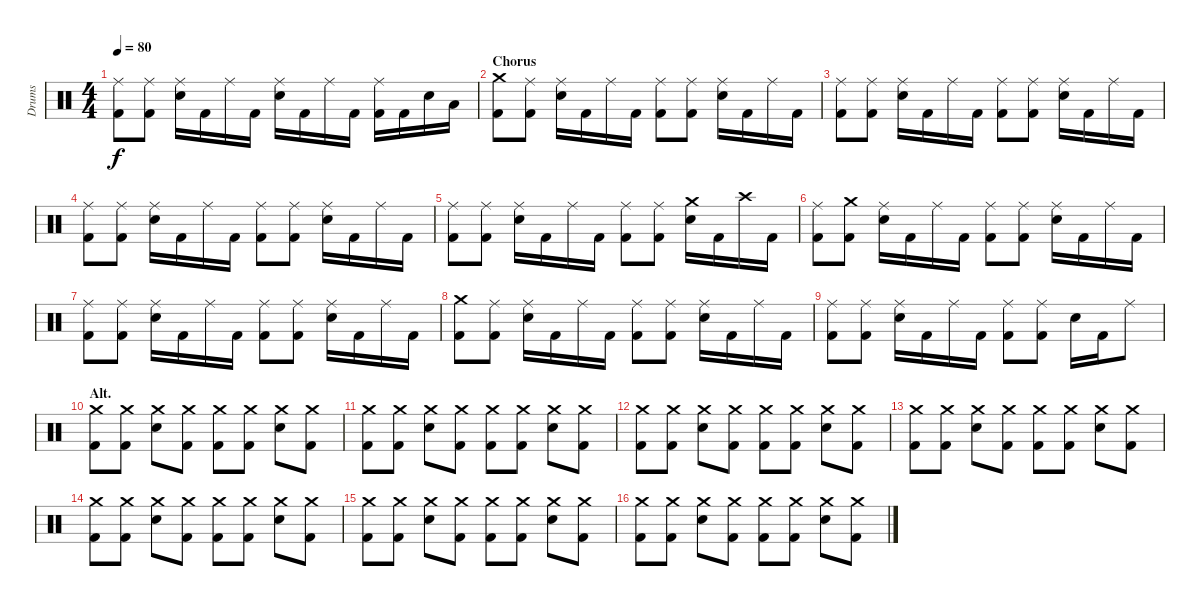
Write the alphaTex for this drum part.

\track ("Drums" "Drums") {instrument percussion}
\staff {score}
\articulation defaults
\ts (4 4)
\tempo 80
\clef neutral
\ks c
("Ride (middle)" "Kick (hit) 2").8{dy f} ("Ride (middle)" "Kick (hit) 2").8 ("Ride (middle)" "Electric Snare (hit)").16 "Kick (hit) 2".16 "Ride (middle)".16 "Kick (hit) 2".16 ("Ride (middle)" "Electric Snare (hit)").16 "Kick (hit) 2".16 "Ride (middle)".16 "Kick (hit) 2".16 ("Ride (middle)" "Kick (hit) 2").16 "Kick (hit) 2".16 "Electric Snare (hit)".16 "Low Floor Tom (hit)".16 |
\section ("" "Chorus")
("Crash medium (hit)" "Kick (hit) 2").8 ("Ride (middle)" "Kick (hit) 2").8 ("Ride (middle)" "Electric Snare (hit)").16 "Kick (hit) 2".16 "Ride (middle)".16 "Kick (hit) 2".16 ("Ride (middle)" "Kick (hit) 2").8 ("Ride (middle)" "Kick (hit) 2").8 ("Ride (middle)" "Electric Snare (hit)").16 "Kick (hit) 2".16 "Ride (middle)".16 "Kick (hit) 2".16 |
("Ride (middle)" "Kick (hit) 2").8 ("Ride (middle)" "Kick (hit) 2").8 ("Ride (middle)" "Electric Snare (hit)").16 "Kick (hit) 2".16 "Ride (middle)".16 "Kick (hit) 2".16 ("Ride (middle)" "Kick (hit) 2").8 ("Ride (middle)" "Kick (hit) 2").8 ("Ride (middle)" "Electric Snare (hit)").16 "Kick (hit) 2".16 "Ride (middle)".16 "Kick (hit) 2".16 |
("Ride (middle)" "Kick (hit) 2").8 ("Ride (middle)" "Kick (hit) 2").8 ("Ride (middle)" "Electric Snare (hit)").16 "Kick (hit) 2".16 "Ride (middle)".16 "Kick (hit) 2".16 ("Ride (middle)" "Kick (hit) 2").8 ("Ride (middle)" "Kick (hit) 2").8 ("Ride (middle)" "Electric Snare (hit)").16 "Kick (hit) 2".16 "Ride (middle)".16 "Kick (hit) 2".16 |
("Ride (middle)" "Kick (hit) 2").8 ("Ride (middle)" "Kick (hit) 2").8 ("Ride (middle)" "Electric Snare (hit)").16 "Kick (hit) 2".16 "Ride (middle)".16 "Kick (hit) 2".16 ("Ride (middle)" "Kick (hit) 2").8 ("Ride (middle)" "Kick (hit) 2").8 ("Crash medium (hit)" "Electric Snare (hit)").16 "Kick (hit) 2".16 "Crash high (hit)".16 "Kick (hit) 2".16 |
("Ride (middle)" "Kick (hit) 2").8 ("Crash medium (hit)" "Kick (hit) 2").8 ("Ride (middle)" "Electric Snare (hit)").16 "Kick (hit) 2".16 "Ride (middle)".16 "Kick (hit) 2".16 ("Ride (middle)" "Kick (hit) 2").8 ("Ride (middle)" "Kick (hit) 2").8 ("Ride (middle)" "Electric Snare (hit)").16 "Kick (hit) 2".16 "Ride (middle)".16 "Kick (hit) 2".16 |
("Ride (middle)" "Kick (hit) 2").8 ("Ride (middle)" "Kick (hit) 2").8 ("Ride (middle)" "Electric Snare (hit)").16 "Kick (hit) 2".16 "Ride (middle)".16 "Kick (hit) 2".16 ("Ride (middle)" "Kick (hit) 2").8 ("Ride (middle)" "Kick (hit) 2").8 ("Ride (middle)" "Electric Snare (hit)").16 "Kick (hit) 2".16 "Ride (middle)".16 "Kick (hit) 2".16 |
("Crash medium (hit)" "Kick (hit) 2").8 ("Ride (middle)" "Kick (hit) 2").8 ("Ride (middle)" "Electric Snare (hit)").16 "Kick (hit) 2".16 "Ride (middle)".16 "Kick (hit) 2".16 ("Ride (middle)" "Kick (hit) 2").8 ("Ride (middle)" "Kick (hit) 2").8 ("Ride (middle)" "Electric Snare (hit)").16 "Kick (hit) 2".16 "Ride (middle)".16 "Kick (hit) 2".16 |
("Ride (middle)" "Kick (hit) 2").8 ("Ride (middle)" "Kick (hit) 2").8 ("Ride (middle)" "Electric Snare (hit)").16 "Kick (hit) 2".16 "Ride (middle)".16 "Kick (hit) 2".16 ("Ride (middle)" "Kick (hit) 2").8 ("Ride (middle)" "Kick (hit) 2").8 "Electric Snare (hit)".16 "Kick (hit) 2".16 "Ride (middle)".8 |
\section ("" "Alt.")
("Crash medium (hit)" "Kick (hit) 2").8 ("Crash medium (hit)" "Kick (hit) 2").8 ("Crash medium (hit)" "Electric Snare (hit)").8 ("Crash medium (hit)" "Kick (hit) 2").8 ("Crash medium (hit)" "Kick (hit) 2").8 ("Crash medium (hit)" "Kick (hit) 2").8 ("Crash medium (hit)" "Electric Snare (hit)").8 ("Crash medium (hit)" "Kick (hit) 2").8 |
("Crash medium (hit)" "Kick (hit) 2").8 ("Crash medium (hit)" "Kick (hit) 2").8 ("Crash medium (hit)" "Electric Snare (hit)").8 ("Crash medium (hit)" "Kick (hit) 2").8 ("Crash medium (hit)" "Kick (hit) 2").8 ("Crash medium (hit)" "Kick (hit) 2").8 ("Crash medium (hit)" "Electric Snare (hit)").8 ("Crash medium (hit)" "Kick (hit) 2").8 |
("Crash medium (hit)" "Kick (hit) 2").8 ("Crash medium (hit)" "Kick (hit) 2").8 ("Crash medium (hit)" "Electric Snare (hit)").8 ("Crash medium (hit)" "Kick (hit) 2").8 ("Crash medium (hit)" "Kick (hit) 2").8 ("Crash medium (hit)" "Kick (hit) 2").8 ("Crash medium (hit)" "Electric Snare (hit)").8 ("Crash medium (hit)" "Kick (hit) 2").8 |
("Crash medium (hit)" "Kick (hit) 2").8 ("Crash medium (hit)" "Kick (hit) 2").8 ("Crash medium (hit)" "Electric Snare (hit)").8 ("Crash medium (hit)" "Kick (hit) 2").8 ("Crash medium (hit)" "Kick (hit) 2").8 ("Crash medium (hit)" "Kick (hit) 2").8 ("Crash medium (hit)" "Electric Snare (hit)").8 ("Crash medium (hit)" "Kick (hit) 2").8 |
("Crash medium (hit)" "Kick (hit) 2").8 ("Crash medium (hit)" "Kick (hit) 2").8 ("Crash medium (hit)" "Electric Snare (hit)").8 ("Crash medium (hit)" "Kick (hit) 2").8 ("Crash medium (hit)" "Kick (hit) 2").8 ("Crash medium (hit)" "Kick (hit) 2").8 ("Crash medium (hit)" "Electric Snare (hit)").8 ("Crash medium (hit)" "Kick (hit) 2").8 |
("Crash medium (hit)" "Kick (hit) 2").8 ("Crash medium (hit)" "Kick (hit) 2").8 ("Crash medium (hit)" "Electric Snare (hit)").8 ("Crash medium (hit)" "Kick (hit) 2").8 ("Crash medium (hit)" "Kick (hit) 2").8 ("Crash medium (hit)" "Kick (hit) 2").8 ("Crash medium (hit)" "Electric Snare (hit)").8 ("Crash medium (hit)" "Kick (hit) 2").8 |
("Crash medium (hit)" "Kick (hit) 2").8 ("Crash medium (hit)" "Kick (hit) 2").8 ("Crash medium (hit)" "Electric Snare (hit)").8 ("Crash medium (hit)" "Kick (hit) 2").8 ("Crash medium (hit)" "Kick (hit) 2").8 ("Crash medium (hit)" "Kick (hit) 2").8 ("Crash medium (hit)" "Electric Snare (hit)").8 ("Crash medium (hit)" "Kick (hit) 2").8
